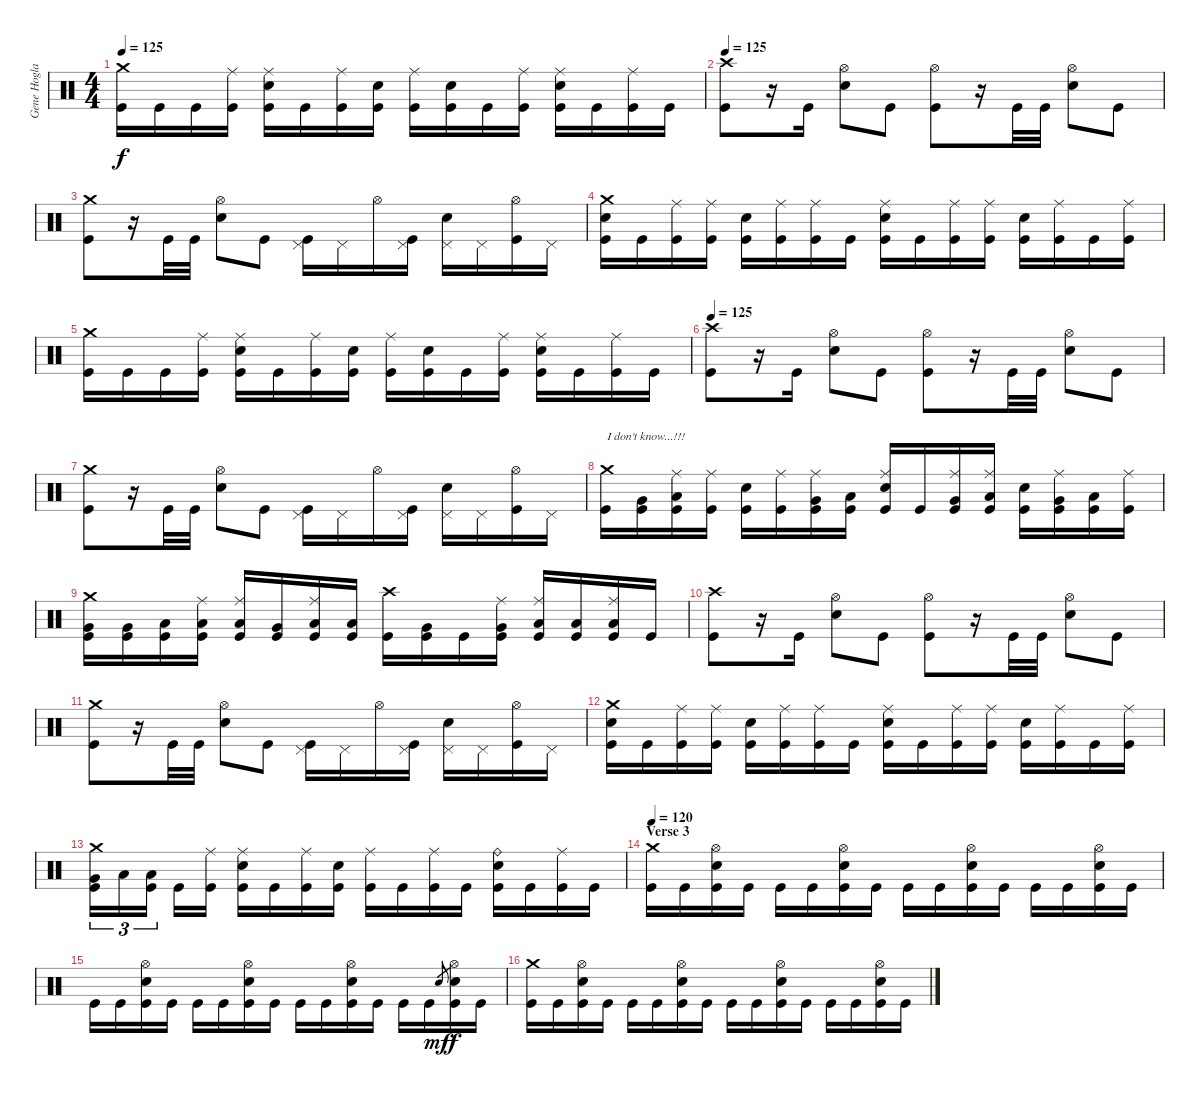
\track ("Gene Hoglan" "Gene Hogla") {instrument percussion}
\staff {score}
\articulation defaults
\ts (4 4)
\tempo 125
\clef neutral
\ks c
("Crash medium (hit)" "Kick (hit)").16{dy f} "Kick (hit)".16 "Kick (hit)".16 ("Ride (middle)" "Kick (hit)").16 ("Ride (middle)" "Electric Snare (hit)" "Kick (hit)").16 "Kick (hit)".16 ("Ride (middle)" "Kick (hit)").16 ("Electric Snare (hit)" "Kick (hit)").16 ("Ride (middle)" "Kick (hit)").16 ("Electric Snare (hit)" "Kick (hit)").16 "Kick (hit)".16 ("Ride (middle)" "Kick (hit)").16 ("Ride (middle)" "Electric Snare (hit)" "Kick (hit)").16 "Kick (hit)".16 ("Ride (middle)" "Kick (hit)").16 "Kick (hit)".16 |
\tempo 125
("Crash high (hit)" "Kick (hit)").8 r.16 "Kick (hit)".16 ("Hi-Hat (open)" "Electric Snare (hit)").8 "Kick (hit)".8 ("Hi-Hat (open)" "Kick (hit)").8 r.16 "Kick (hit)".32 "Kick (hit)".32 ("Hi-Hat (open)" "Electric Snare (hit)").8 "Kick (hit)".8 |
("Crash medium (hit)" "Kick (hit)").8 r.16 "Kick (hit)".32 "Kick (hit)".32 ("Hi-Hat (open)" "Electric Snare (hit)").8 "Kick (hit)".8 ("Pedal Hi-Hat (hit)" "Kick (hit)").16 "Pedal Hi-Hat (hit)".16 "Hi-Hat (open)".16 ("Pedal Hi-Hat (hit)" "Kick (hit)").16 ("Pedal Hi-Hat (hit)" "Electric Snare (hit)").16 "Pedal Hi-Hat (hit)".16 ("Hi-Hat (open)" "Kick (hit)").16 "Pedal Hi-Hat (hit)".16 |
("Crash medium (hit)" "Electric Snare (hit)" "Kick (hit)").16 "Kick (hit)".16 ("Ride (middle)" "Kick (hit)").16 ("Ride (middle)" "Kick (hit)").16 ("Electric Snare (hit)" "Kick (hit)").16 ("Ride (middle)" "Kick (hit)").16 ("Ride (middle)" "Kick (hit)").16 "Kick (hit)".16 ("Ride (middle)" "Electric Snare (hit)" "Kick (hit)").16 "Kick (hit)".16 ("Ride (middle)" "Kick (hit)").16 ("Ride (middle)" "Kick (hit)").16 ("Electric Snare (hit)" "Kick (hit)").16 ("Ride (middle)" "Kick (hit)").16 "Kick (hit)".16 ("Ride (middle)" "Kick (hit)").16 |
("Crash medium (hit)" "Kick (hit)").16 "Kick (hit)".16 "Kick (hit)".16 ("Ride (middle)" "Kick (hit)").16 ("Ride (middle)" "Electric Snare (hit)" "Kick (hit)").16 "Kick (hit)".16 ("Ride (middle)" "Kick (hit)").16 ("Electric Snare (hit)" "Kick (hit)").16 ("Ride (middle)" "Kick (hit)").16 ("Electric Snare (hit)" "Kick (hit)").16 "Kick (hit)".16 ("Ride (middle)" "Kick (hit)").16 ("Ride (middle)" "Electric Snare (hit)" "Kick (hit)").16 "Kick (hit)".16 ("Ride (middle)" "Kick (hit)").16 "Kick (hit)".16 |
\tempo 125
("Crash high (hit)" "Kick (hit)").8 r.16 "Kick (hit)".16 ("Hi-Hat (open)" "Electric Snare (hit)").8 "Kick (hit)".8 ("Hi-Hat (open)" "Kick (hit)").8 r.16 "Kick (hit)".32 "Kick (hit)".32 ("Hi-Hat (open)" "Electric Snare (hit)").8 "Kick (hit)".8 |
("Crash medium (hit)" "Kick (hit)").8 r.16 "Kick (hit)".32 "Kick (hit)".32 ("Hi-Hat (open)" "Electric Snare (hit)").8 "Kick (hit)".8 ("Pedal Hi-Hat (hit)" "Kick (hit)").16 "Pedal Hi-Hat (hit)".16 "Hi-Hat (open)".16 ("Pedal Hi-Hat (hit)" "Kick (hit)").16 ("Pedal Hi-Hat (hit)" "Electric Snare (hit)").16 "Pedal Hi-Hat (hit)".16 ("Hi-Hat (open)" "Kick (hit)").16 "Pedal Hi-Hat (hit)".16 |
("Crash medium (hit)" "Kick (hit)").16{txt "I don't know...!!!"} ("Very Low Tom (hit)" "Kick (hit)").16 ("Ride (middle)" "Low Floor Tom (hit)" "Kick (hit)").16 ("Ride (middle)" "Kick (hit)").16 ("Electric Snare (hit)" "Kick (hit)").16 ("Ride (middle)" "Kick (hit)").16 ("Ride (middle)" "Very Low Tom (hit)" "Kick (hit)").16 ("Low Floor Tom (hit)" "Kick (hit)").16 ("Ride (middle)" "Electric Snare (hit)" "Kick (hit)").16 "Kick (hit)".16 ("Ride (middle)" "Very Low Tom (hit)" "Kick (hit)").16 ("Ride (middle)" "Low Floor Tom (hit)" "Kick (hit)").16 ("Electric Snare (hit)" "Kick (hit)").16 ("Ride (middle)" "Very Low Tom (hit)" "Kick (hit)").16 ("Low Floor Tom (hit)" "Kick (hit)").16 ("Ride (middle)" "Kick (hit)").16 |
("Crash medium (hit)" "Very Low Tom (hit)" "Kick (hit)").16 ("Very Low Tom (hit)" "Kick (hit)").16 ("Low Floor Tom (hit)" "Kick (hit)").16 ("Ride (middle)" "Low Floor Tom (hit)" "Kick (hit)").16 ("Ride (middle)" "Low Tom (hit)" "Kick (hit)").16 ("Very Low Tom (hit)" "Kick (hit)").16 ("Ride (middle)" "Low Floor Tom (hit)" "Kick (hit)").16 ("Low Floor Tom (hit)" "Kick (hit)").16 ("Crash high (hit)" "Kick (hit)").16 ("Very Low Tom (hit)" "Kick (hit)").16 "Kick (hit)".16 ("Ride (middle)" "Very Low Tom (hit)" "Kick (hit)").16 ("Ride (middle)" "Low Floor Tom (hit)" "Kick (hit)").16 ("Low Floor Tom (hit)" "Kick (hit)").16 ("Ride (middle)" "Low Tom (hit)" "Kick (hit)").16 "Kick (hit)".16 |
("Crash high (hit)" "Kick (hit)").8 r.16 "Kick (hit)".16 ("Hi-Hat (open)" "Electric Snare (hit)").8 "Kick (hit)".8 ("Hi-Hat (open)" "Kick (hit)").8 r.16 "Kick (hit)".32 "Kick (hit)".32 ("Hi-Hat (open)" "Electric Snare (hit)").8 "Kick (hit)".8 |
("Crash medium (hit)" "Kick (hit)").8 r.16 "Kick (hit)".32 "Kick (hit)".32 ("Hi-Hat (open)" "Electric Snare (hit)").8 "Kick (hit)".8 ("Pedal Hi-Hat (hit)" "Kick (hit)").16 "Pedal Hi-Hat (hit)".16 "Hi-Hat (open)".16 ("Pedal Hi-Hat (hit)" "Kick (hit)").16 ("Pedal Hi-Hat (hit)" "Electric Snare (hit)").16 "Pedal Hi-Hat (hit)".16 ("Hi-Hat (open)" "Kick (hit)").16 "Pedal Hi-Hat (hit)".16 |
("Crash medium (hit)" "Electric Snare (hit)" "Kick (hit)").16 "Kick (hit)".16 ("Ride (middle)" "Kick (hit)").16 ("Ride (middle)" "Kick (hit)").16 ("Electric Snare (hit)" "Kick (hit)").16 ("Ride (middle)" "Kick (hit)").16 ("Ride (middle)" "Kick (hit)").16 "Kick (hit)".16 ("Ride (middle)" "Electric Snare (hit)" "Kick (hit)").16 "Kick (hit)".16 ("Ride (middle)" "Kick (hit)").16 ("Ride (middle)" "Kick (hit)").16 ("Electric Snare (hit)" "Kick (hit)").16 ("Ride (middle)" "Kick (hit)").16 "Kick (hit)".16 ("Ride (middle)" "Kick (hit)").16 |
("Crash medium (hit)" "Very Low Tom (hit)" "Kick (hit)").16{tu (3 2)} "Low Floor Tom (hit)".16{tu (3 2)} ("Low Floor Tom (hit)" "Kick (hit)").16{tu (3 2)} "Kick (hit)".16 ("Ride (middle)" "Kick (hit)").16 ("Ride (middle)" "Electric Snare (hit)" "Kick (hit)").16 "Kick (hit)".16 ("Ride (middle)" "Kick (hit)").16 ("Electric Snare (hit)" "Kick (hit)").16 ("Ride (middle)" "Kick (hit)").16 "Kick (hit)".16 ("Ride (middle)" "Kick (hit)").16 "Kick (hit)".16 ("Ride (bell)" "Electric Snare (hit)" "Kick (hit)").16 "Kick (hit)".16 ("Ride (middle)" "Kick (hit)").16 "Kick (hit)".16 |
\section ("" "Verse 3")
\tempo 120
("Crash medium (hit)" "Kick (hit)").16 "Kick (hit)".16 ("Hi-Hat (open)" "Electric Snare (hit)" "Kick (hit)").16 "Kick (hit)".16 "Kick (hit)".16 "Kick (hit)".16 ("Hi-Hat (open)" "Electric Snare (hit)" "Kick (hit)").16 "Kick (hit)".16 "Kick (hit)".16 "Kick (hit)".16 ("Hi-Hat (open)" "Electric Snare (hit)" "Kick (hit)").16 "Kick (hit)".16 "Kick (hit)".16 "Kick (hit)".16 ("Hi-Hat (open)" "Electric Snare (hit)" "Kick (hit)").16 "Kick (hit)".16 |
"Kick (hit)".16 "Kick (hit)".16 ("Hi-Hat (open)" "Electric Snare (hit)" "Kick (hit)").16 "Kick (hit)".16 "Kick (hit)".16 "Kick (hit)".16 ("Hi-Hat (open)" "Electric Snare (hit)" "Kick (hit)").16 "Kick (hit)".16 "Kick (hit)".16 "Kick (hit)".16 ("Hi-Hat (open)" "Electric Snare (hit)" "Kick (hit)").16 "Kick (hit)".16 "Kick (hit)".16 "Kick (hit)".16 "Electric Snare (hit)".8{gr dy mf} ("Hi-Hat (open)" "Electric Snare (hit)" "Kick (hit)").16{dy f} "Kick (hit)".16 |
("Crash medium (hit)" "Kick (hit)").16 "Kick (hit)".16 ("Hi-Hat (open)" "Electric Snare (hit)" "Kick (hit)").16 "Kick (hit)".16 "Kick (hit)".16 "Kick (hit)".16 ("Hi-Hat (open)" "Electric Snare (hit)" "Kick (hit)").16 "Kick (hit)".16 "Kick (hit)".16 "Kick (hit)".16 ("Hi-Hat (open)" "Electric Snare (hit)" "Kick (hit)").16 "Kick (hit)".16 "Kick (hit)".16 "Kick (hit)".16 ("Hi-Hat (open)" "Electric Snare (hit)" "Kick (hit)").16 "Kick (hit)".16
